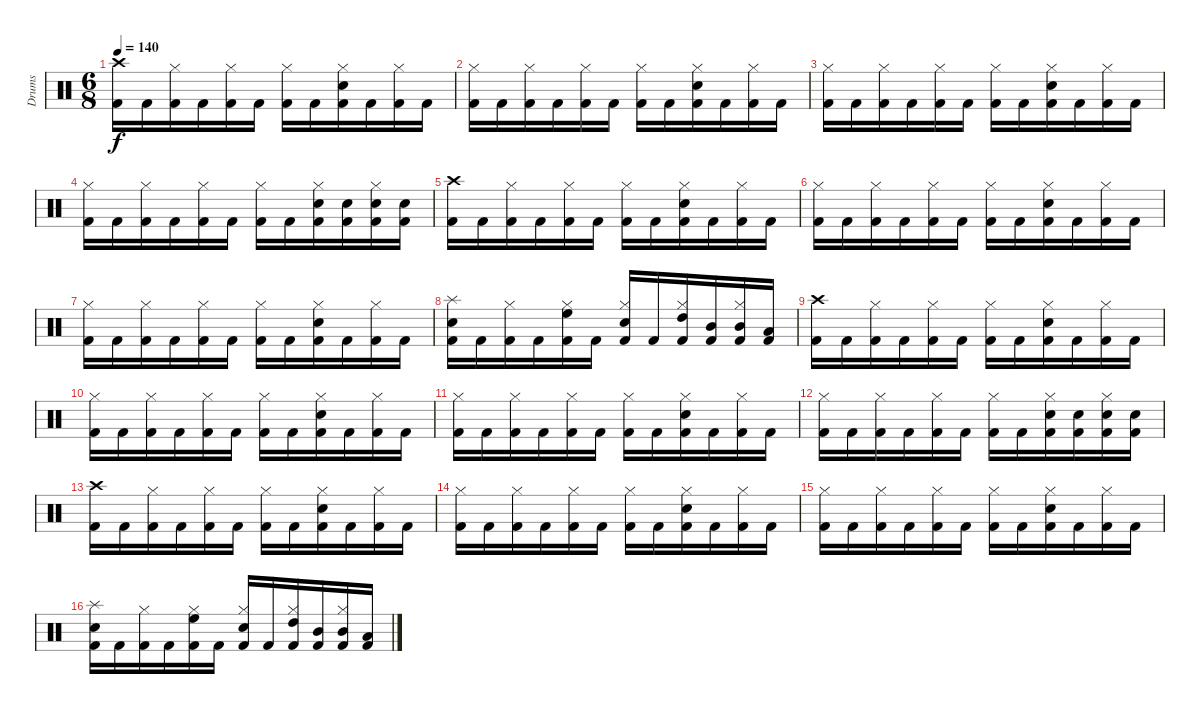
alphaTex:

\track ("Drums" "Drums") {instrument percussion}
\staff {score}
\articulation defaults
\ts (6 8)
\tempo 140
\clef neutral
\ks c
("Kick (hit) 2" "Crash high (hit)").16{dy f} "Kick (hit) 2".16 ("Kick (hit) 2" "Hi-Hat (closed)").16 "Kick (hit) 2".16 ("Kick (hit) 2" "Hi-Hat (closed)").16 "Kick (hit) 2".16 ("Kick (hit) 2" "Hi-Hat (closed)").16 "Kick (hit) 2".16 ("Kick (hit) 2" "Hi-Hat (closed)" "Electric Snare (hit)").16 "Kick (hit) 2".16 ("Kick (hit) 2" "Hi-Hat (closed)").16 "Kick (hit) 2".16 |
("Kick (hit) 2" "Hi-Hat (closed)").16 "Kick (hit) 2".16 ("Kick (hit) 2" "Hi-Hat (closed)").16 "Kick (hit) 2".16 ("Kick (hit) 2" "Hi-Hat (closed)").16 "Kick (hit) 2".16 ("Kick (hit) 2" "Hi-Hat (closed)").16 "Kick (hit) 2".16 ("Kick (hit) 2" "Hi-Hat (closed)" "Electric Snare (hit)").16 "Kick (hit) 2".16 ("Kick (hit) 2" "Hi-Hat (closed)").16 "Kick (hit) 2".16 |
("Kick (hit) 2" "Hi-Hat (closed)").16 "Kick (hit) 2".16 ("Kick (hit) 2" "Hi-Hat (closed)").16 "Kick (hit) 2".16 ("Kick (hit) 2" "Hi-Hat (closed)").16 "Kick (hit) 2".16 ("Kick (hit) 2" "Hi-Hat (closed)").16 "Kick (hit) 2".16 ("Kick (hit) 2" "Hi-Hat (closed)" "Electric Snare (hit)").16 "Kick (hit) 2".16 ("Kick (hit) 2" "Hi-Hat (closed)").16 "Kick (hit) 2".16 |
("Kick (hit) 2" "Hi-Hat (closed)").16 "Kick (hit) 2".16 ("Kick (hit) 2" "Hi-Hat (closed)").16 "Kick (hit) 2".16 ("Kick (hit) 2" "Hi-Hat (closed)").16 "Kick (hit) 2".16 ("Kick (hit) 2" "Hi-Hat (closed)").16 "Kick (hit) 2".16 ("Kick (hit) 2" "Hi-Hat (closed)" "Electric Snare (hit)").16 ("Kick (hit) 2" "Electric Snare (hit)").16 ("Kick (hit) 2" "Hi-Hat (closed)" "Electric Snare (hit)").16 ("Kick (hit) 2" "Electric Snare (hit)").16 |
("Kick (hit) 2" "Crash high (hit)").16 "Kick (hit) 2".16 ("Kick (hit) 2" "Hi-Hat (closed)").16 "Kick (hit) 2".16 ("Kick (hit) 2" "Hi-Hat (closed)").16 "Kick (hit) 2".16 ("Kick (hit) 2" "Hi-Hat (closed)").16 "Kick (hit) 2".16 ("Kick (hit) 2" "Hi-Hat (closed)" "Electric Snare (hit)").16 "Kick (hit) 2".16 ("Kick (hit) 2" "Hi-Hat (closed)").16 "Kick (hit) 2".16 |
("Kick (hit) 2" "Hi-Hat (closed)").16 "Kick (hit) 2".16 ("Kick (hit) 2" "Hi-Hat (closed)").16 "Kick (hit) 2".16 ("Kick (hit) 2" "Hi-Hat (closed)").16 "Kick (hit) 2".16 ("Kick (hit) 2" "Hi-Hat (closed)").16 "Kick (hit) 2".16 ("Kick (hit) 2" "Hi-Hat (closed)" "Electric Snare (hit)").16 "Kick (hit) 2".16 ("Kick (hit) 2" "Hi-Hat (closed)").16 "Kick (hit) 2".16 |
("Kick (hit) 2" "Hi-Hat (closed)").16 "Kick (hit) 2".16 ("Kick (hit) 2" "Hi-Hat (closed)").16 "Kick (hit) 2".16 ("Kick (hit) 2" "Hi-Hat (closed)").16 "Kick (hit) 2".16 ("Kick (hit) 2" "Hi-Hat (closed)").16 "Kick (hit) 2".16 ("Kick (hit) 2" "Hi-Hat (closed)" "Electric Snare (hit)").16 "Kick (hit) 2".16 ("Kick (hit) 2" "Hi-Hat (closed)").16 "Kick (hit) 2".16 |
("Kick (hit) 2" "Electric Snare (hit)" "Splash (hit)").16 "Kick (hit) 2".16 ("Kick (hit) 2" "Hi-Hat (closed)").16 "Kick (hit) 2".16 ("Kick (hit) 2" "Hi-Hat (closed)" "High Floor Tom (hit)").16 "Kick (hit) 2".16 ("Kick (hit) 2" "Hi-Hat (closed)" "Electric Snare (hit)").16 "Kick (hit) 2".16 ("Kick (hit) 2" "Hi-Hat (closed)" "High Tom (hit)").16 ("Kick (hit) 2" "Mid Tom (hit)").16 ("Kick (hit) 2" "Hi-Hat (closed)" "Mid Tom (hit)").16 ("Kick (hit) 2" "Low Tom (hit)").16 |
("Kick (hit) 2" "Crash high (hit)").16 "Kick (hit) 2".16 ("Kick (hit) 2" "Hi-Hat (closed)").16 "Kick (hit) 2".16 ("Kick (hit) 2" "Hi-Hat (closed)").16 "Kick (hit) 2".16 ("Kick (hit) 2" "Hi-Hat (closed)").16 "Kick (hit) 2".16 ("Kick (hit) 2" "Hi-Hat (closed)" "Electric Snare (hit)").16 "Kick (hit) 2".16 ("Kick (hit) 2" "Hi-Hat (closed)").16 "Kick (hit) 2".16 |
("Kick (hit) 2" "Hi-Hat (closed)").16 "Kick (hit) 2".16 ("Kick (hit) 2" "Hi-Hat (closed)").16 "Kick (hit) 2".16 ("Kick (hit) 2" "Hi-Hat (closed)").16 "Kick (hit) 2".16 ("Kick (hit) 2" "Hi-Hat (closed)").16 "Kick (hit) 2".16 ("Kick (hit) 2" "Hi-Hat (closed)" "Electric Snare (hit)").16 "Kick (hit) 2".16 ("Kick (hit) 2" "Hi-Hat (closed)").16 "Kick (hit) 2".16 |
("Kick (hit) 2" "Hi-Hat (closed)").16 "Kick (hit) 2".16 ("Kick (hit) 2" "Hi-Hat (closed)").16 "Kick (hit) 2".16 ("Kick (hit) 2" "Hi-Hat (closed)").16 "Kick (hit) 2".16 ("Kick (hit) 2" "Hi-Hat (closed)").16 "Kick (hit) 2".16 ("Kick (hit) 2" "Hi-Hat (closed)" "Electric Snare (hit)").16 "Kick (hit) 2".16 ("Kick (hit) 2" "Hi-Hat (closed)").16 "Kick (hit) 2".16 |
("Kick (hit) 2" "Hi-Hat (closed)").16 "Kick (hit) 2".16 ("Kick (hit) 2" "Hi-Hat (closed)").16 "Kick (hit) 2".16 ("Kick (hit) 2" "Hi-Hat (closed)").16 "Kick (hit) 2".16 ("Kick (hit) 2" "Hi-Hat (closed)").16 "Kick (hit) 2".16 ("Kick (hit) 2" "Hi-Hat (closed)" "Electric Snare (hit)").16 ("Kick (hit) 2" "Electric Snare (hit)").16 ("Kick (hit) 2" "Hi-Hat (closed)" "Electric Snare (hit)").16 ("Kick (hit) 2" "Electric Snare (hit)").16 |
("Kick (hit) 2" "Crash high (hit)").16 "Kick (hit) 2".16 ("Kick (hit) 2" "Hi-Hat (closed)").16 "Kick (hit) 2".16 ("Kick (hit) 2" "Hi-Hat (closed)").16 "Kick (hit) 2".16 ("Kick (hit) 2" "Hi-Hat (closed)").16 "Kick (hit) 2".16 ("Kick (hit) 2" "Hi-Hat (closed)" "Electric Snare (hit)").16 "Kick (hit) 2".16 ("Kick (hit) 2" "Hi-Hat (closed)").16 "Kick (hit) 2".16 |
("Kick (hit) 2" "Hi-Hat (closed)").16 "Kick (hit) 2".16 ("Kick (hit) 2" "Hi-Hat (closed)").16 "Kick (hit) 2".16 ("Kick (hit) 2" "Hi-Hat (closed)").16 "Kick (hit) 2".16 ("Kick (hit) 2" "Hi-Hat (closed)").16 "Kick (hit) 2".16 ("Kick (hit) 2" "Hi-Hat (closed)" "Electric Snare (hit)").16 "Kick (hit) 2".16 ("Kick (hit) 2" "Hi-Hat (closed)").16 "Kick (hit) 2".16 |
("Kick (hit) 2" "Hi-Hat (closed)").16 "Kick (hit) 2".16 ("Kick (hit) 2" "Hi-Hat (closed)").16 "Kick (hit) 2".16 ("Kick (hit) 2" "Hi-Hat (closed)").16 "Kick (hit) 2".16 ("Kick (hit) 2" "Hi-Hat (closed)").16 "Kick (hit) 2".16 ("Kick (hit) 2" "Hi-Hat (closed)" "Electric Snare (hit)").16 "Kick (hit) 2".16 ("Kick (hit) 2" "Hi-Hat (closed)").16 "Kick (hit) 2".16 |
("Kick (hit) 2" "Electric Snare (hit)" "Splash (hit)").16 "Kick (hit) 2".16 ("Kick (hit) 2" "Hi-Hat (closed)").16 "Kick (hit) 2".16 ("Kick (hit) 2" "Hi-Hat (closed)" "High Floor Tom (hit)").16 "Kick (hit) 2".16 ("Kick (hit) 2" "Hi-Hat (closed)" "Electric Snare (hit)").16 "Kick (hit) 2".16 ("Kick (hit) 2" "Hi-Hat (closed)" "High Tom (hit)").16 ("Kick (hit) 2" "Mid Tom (hit)").16 ("Kick (hit) 2" "Hi-Hat (closed)" "Mid Tom (hit)").16 ("Kick (hit) 2" "Low Tom (hit)").16
